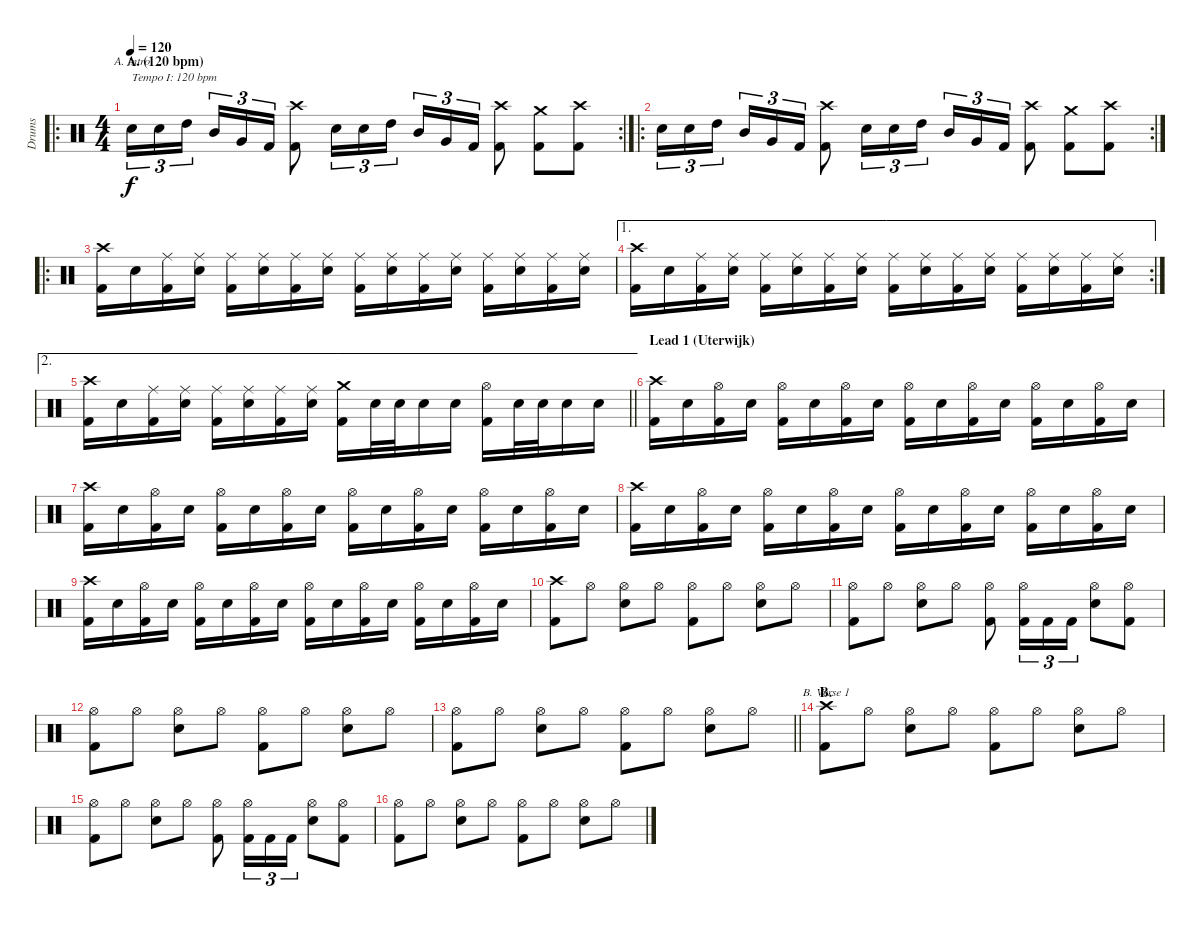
\track ("Drums" "Drums") {instrument percussion}
\staff {score}
\articulation defaults
\chord ("A. Intro")
\chord ("B. Verse 1")
\ro
\rc 2
\ts (4 4)
\section ("" "A. (120 bpm)")
\tempo 120
\clef neutral
\ks c "Snare (hit) 2".16{tu (3 2) ch "A. Intro" txt "Tempo I: 120 bpm " dy f} "Snare (hit) 2".16{tu (3 2)} "High Tom (hit)".16{tu (3 2)} "Mid Tom (hit)".16{tu (3 2)} "Very Low Tom (hit)".16{tu (3 2)} "Kick (hit) 2".16{tu (3 2)}
("Crash high (hit)" "Kick (hit) 2").8 "Snare (hit) 2".16{tu (3 2)} "Snare (hit) 2".16{tu (3 2)} "High Tom (hit)".16{tu (3 2)} "Mid Tom (hit)".16{tu (3 2)} "Very Low Tom (hit)".16{tu (3 2)} "Kick (hit) 2".16{tu (3 2)} ("Crash high (hit)" "Kick (hit) 2").8 ("Crash medium (hit)" "Kick (hit) 2").8 ("Crash high (hit)" "Kick (hit) 2").8 |
\ro
\rc 2 "Snare (hit) 2".16{tu (3 2)} "Snare (hit) 2".16{tu (3 2)} "High Tom (hit)".16{tu (3 2)} "Mid Tom (hit)".16{tu (3 2)} "Very Low Tom (hit)".16{tu (3 2)} "Kick (hit) 2".16{tu (3 2)}
("Crash high (hit)" "Kick (hit) 2").8 "Snare (hit) 2".16{tu (3 2)} "Snare (hit) 2".16{tu (3 2)} "High Tom (hit)".16{tu (3 2)} "Mid Tom (hit)".16{tu (3 2)} "Very Low Tom (hit)".16{tu (3 2)} "Kick (hit) 2".16{tu (3 2)} ("Crash high (hit)" "Kick (hit) 2").8 ("Crash medium (hit)" "Kick (hit) 2").8 ("Crash high (hit)" "Kick (hit) 2").8 |
\ro
("Crash high (hit)" "Kick (hit) 2").16 "Snare (hit) 2".16 ("Ride (middle)" "Kick (hit) 2").16 ("Ride (middle)" "Snare (hit) 2").16 ("Ride (middle)" "Kick (hit) 2").16 ("Ride (middle)" "Snare (hit) 2").16 ("Ride (middle)" "Kick (hit) 2").16 ("Ride (middle)" "Snare (hit) 2").16 ("Ride (middle)" "Kick (hit) 2").16 ("Ride (middle)" "Snare (hit) 2").16 ("Ride (middle)" "Kick (hit) 2").16 ("Ride (middle)" "Snare (hit) 2").16 ("Ride (middle)" "Kick (hit) 2").16 ("Ride (middle)" "Snare (hit) 2").16 ("Ride (middle)" "Kick (hit) 2").16 ("Ride (middle)" "Snare (hit) 2").16 |
\ae 1
\rc 2
("Crash high (hit)" "Kick (hit) 2").16 "Snare (hit) 2".16 ("Ride (middle)" "Kick (hit) 2").16 ("Ride (middle)" "Snare (hit) 2").16 ("Ride (middle)" "Kick (hit) 2").16 ("Ride (middle)" "Snare (hit) 2").16 ("Ride (middle)" "Kick (hit) 2").16 ("Ride (middle)" "Snare (hit) 2").16 ("Ride (middle)" "Kick (hit) 2").16 ("Ride (middle)" "Snare (hit) 2").16 ("Ride (middle)" "Kick (hit) 2").16 ("Ride (middle)" "Snare (hit) 2").16 ("Ride (middle)" "Kick (hit) 2").16 ("Ride (middle)" "Snare (hit) 2").16 ("Ride (middle)" "Kick (hit) 2").16 ("Ride (middle)" "Snare (hit) 2").16 |
\ae 2
\barLineRight lightlight
("Crash high (hit)" "Kick (hit) 2").16 "Snare (hit) 2".16 ("Ride (middle)" "Kick (hit) 2").16 ("Ride (middle)" "Snare (hit) 2").16 ("Ride (middle)" "Kick (hit) 2").16 ("Ride (middle)" "Snare (hit) 2").16 ("Ride (middle)" "Kick (hit) 2").16 ("Ride (middle)" "Snare (hit) 2").16 ("Crash medium (hit)" "Kick (hit) 2").16 "Snare (hit) 2".32 "Snare (hit) 2".32 "Snare (hit) 2".16 "Snare (hit) 2".16 ("Hi-Hat (open)" "Kick (hit) 2").16 "Snare (hit) 2".32 "Snare (hit) 2".32 "Snare (hit) 2".16 "Snare (hit) 2".16 |
\section ("" "Lead 1 (Uterwijk)")
("Crash high (hit)" "Kick (hit) 2").16 "Snare (hit) 2".16 ("Hi-Hat (open)" "Kick (hit) 2").16 "Snare (hit) 2".16 ("Hi-Hat (open)" "Kick (hit) 2").16 "Snare (hit) 2".16 ("Hi-Hat (open)" "Kick (hit) 2").16 "Snare (hit) 2".16 ("Hi-Hat (open)" "Kick (hit) 2").16 "Snare (hit) 2".16 ("Hi-Hat (open)" "Kick (hit) 2").16 "Snare (hit) 2".16 ("Hi-Hat (open)" "Kick (hit) 2").16 "Snare (hit) 2".16 ("Hi-Hat (open)" "Kick (hit) 2").16 "Snare (hit) 2".16 |
("Crash high (hit)" "Kick (hit) 2").16 "Snare (hit) 2".16 ("Hi-Hat (open)" "Kick (hit) 2").16 "Snare (hit) 2".16 ("Hi-Hat (open)" "Kick (hit) 2").16 "Snare (hit) 2".16 ("Hi-Hat (open)" "Kick (hit) 2").16 "Snare (hit) 2".16 ("Hi-Hat (open)" "Kick (hit) 2").16 "Snare (hit) 2".16 ("Hi-Hat (open)" "Kick (hit) 2").16 "Snare (hit) 2".16 ("Hi-Hat (open)" "Kick (hit) 2").16 "Snare (hit) 2".16 ("Hi-Hat (open)" "Kick (hit) 2").16 "Snare (hit) 2".16 |
("Crash high (hit)" "Kick (hit) 2").16 "Snare (hit) 2".16 ("Hi-Hat (open)" "Kick (hit) 2").16 "Snare (hit) 2".16 ("Hi-Hat (open)" "Kick (hit) 2").16 "Snare (hit) 2".16 ("Hi-Hat (open)" "Kick (hit) 2").16 "Snare (hit) 2".16 ("Hi-Hat (open)" "Kick (hit) 2").16 "Snare (hit) 2".16 ("Hi-Hat (open)" "Kick (hit) 2").16 "Snare (hit) 2".16 ("Hi-Hat (open)" "Kick (hit) 2").16 "Snare (hit) 2".16 ("Hi-Hat (open)" "Kick (hit) 2").16 "Snare (hit) 2".16 |
("Crash high (hit)" "Kick (hit) 2").16 "Snare (hit) 2".16 ("Hi-Hat (open)" "Kick (hit) 2").16 "Snare (hit) 2".16 ("Hi-Hat (open)" "Kick (hit) 2").16 "Snare (hit) 2".16 ("Hi-Hat (open)" "Kick (hit) 2").16 "Snare (hit) 2".16 ("Hi-Hat (open)" "Kick (hit) 2").16 "Snare (hit) 2".16 ("Hi-Hat (open)" "Kick (hit) 2").16 "Snare (hit) 2".16 ("Hi-Hat (open)" "Kick (hit) 2").16 "Snare (hit) 2".16 ("Hi-Hat (open)" "Kick (hit) 2").16 "Snare (hit) 2".16 |
("Crash high (hit)" "Kick (hit) 2").8 "Hi-Hat (open)".8 ("Hi-Hat (open)" "Snare (hit) 2").8 "Hi-Hat (open)".8 ("Hi-Hat (open)" "Kick (hit) 2").8 "Hi-Hat (open)".8 ("Hi-Hat (open)" "Snare (hit) 2").8 "Hi-Hat (open)".8 |
("Hi-Hat (open)" "Kick (hit) 2").8 "Hi-Hat (open)".8 ("Hi-Hat (open)" "Snare (hit) 2").8 "Hi-Hat (open)".8 ("Hi-Hat (open)" "Kick (hit) 2").8 ("Hi-Hat (open)" "Kick (hit) 2").16{tu (3 2)} "Kick (hit) 2".16{tu (3 2)} "Kick (hit) 2".16{tu (3 2)} ("Hi-Hat (open)" "Snare (hit) 2").8 ("Hi-Hat (open)" "Kick (hit) 2").8 |
("Hi-Hat (open)" "Kick (hit) 2").8 "Hi-Hat (open)".8 ("Hi-Hat (open)" "Snare (hit) 2").8 "Hi-Hat (open)".8 ("Hi-Hat (open)" "Kick (hit) 2").8 "Hi-Hat (open)".8 ("Hi-Hat (open)" "Snare (hit) 2").8 "Hi-Hat (open)".8 |
\barLineRight lightlight
("Hi-Hat (open)" "Kick (hit) 2").8 "Hi-Hat (open)".8 ("Hi-Hat (open)" "Snare (hit) 2").8 "Hi-Hat (open)".8 ("Hi-Hat (open)" "Kick (hit) 2").8 "Hi-Hat (open)".8 ("Hi-Hat (open)" "Snare (hit) 2").8 "Hi-Hat (open)".8 |
\section ("" "B.")
("Crash high (hit)" "Kick (hit) 2").8{ch "B. Verse 1"} "Hi-Hat (open)".8 ("Hi-Hat (open)" "Snare (hit) 2").8 "Hi-Hat (open)".8 ("Hi-Hat (open)" "Kick (hit) 2").8 "Hi-Hat (open)".8 ("Hi-Hat (open)" "Snare (hit) 2").8 "Hi-Hat (open)".8 |
("Hi-Hat (open)" "Kick (hit) 2").8 "Hi-Hat (open)".8 ("Hi-Hat (open)" "Snare (hit) 2").8 "Hi-Hat (open)".8 ("Hi-Hat (open)" "Kick (hit) 2").8 ("Hi-Hat (open)" "Kick (hit) 2").16{tu (3 2)} "Kick (hit) 2".16{tu (3 2)} "Kick (hit) 2".16{tu (3 2)} ("Hi-Hat (open)" "Snare (hit) 2").8 ("Hi-Hat (open)" "Kick (hit) 2").8 |
("Hi-Hat (open)" "Kick (hit) 2").8 "Hi-Hat (open)".8 ("Hi-Hat (open)" "Snare (hit) 2").8 "Hi-Hat (open)".8 ("Hi-Hat (open)" "Kick (hit) 2").8 "Hi-Hat (open)".8 ("Hi-Hat (open)" "Snare (hit) 2").8 "Hi-Hat (open)".8
